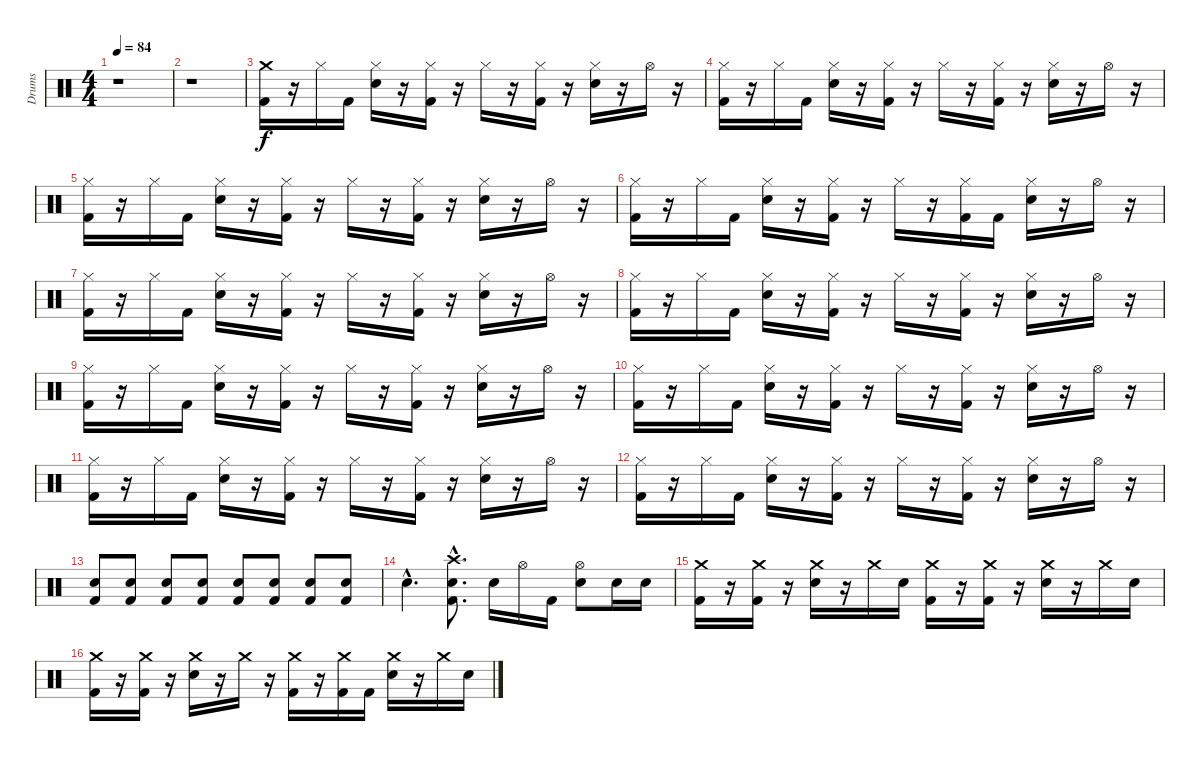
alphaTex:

\track ("Drums" "Drums") {instrument percussion}
\staff {score}
\articulation defaults
\ts (4 4)
\tempo 84
\clef neutral
\ks c
r.1{dy f} |
r.1 |
("Crash medium (hit)" "Kick (hit) 2").16 r.16 "Hi-Hat (closed)".16 "Kick (hit) 2".16 ("Hi-Hat (closed)" "Snare (hit) 2").16 r.16 ("Hi-Hat (closed)" "Kick (hit) 2").16 r.16 "Hi-Hat (closed)".16 r.16 ("Hi-Hat (closed)" "Kick (hit) 2").16 r.16 ("Hi-Hat (closed)" "Snare (hit) 2").16 r.16 "Hi-Hat (open)".16 r.16 |
("Hi-Hat (closed)" "Kick (hit) 2").16 r.16 "Hi-Hat (closed)".16 "Kick (hit) 2".16 ("Hi-Hat (closed)" "Snare (hit) 2").16 r.16 ("Hi-Hat (closed)" "Kick (hit) 2").16 r.16 "Hi-Hat (closed)".16 r.16 ("Hi-Hat (closed)" "Kick (hit) 2").16 r.16 ("Hi-Hat (closed)" "Snare (hit) 2").16 r.16 "Hi-Hat (open)".16 r.16 |
("Hi-Hat (closed)" "Kick (hit) 2").16 r.16 "Hi-Hat (closed)".16 "Kick (hit) 2".16 ("Hi-Hat (closed)" "Snare (hit) 2").16 r.16 ("Hi-Hat (closed)" "Kick (hit) 2").16 r.16 "Hi-Hat (closed)".16 r.16 ("Hi-Hat (closed)" "Kick (hit) 2").16 r.16 ("Hi-Hat (closed)" "Snare (hit) 2").16 r.16 "Hi-Hat (open)".16 r.16 |
("Hi-Hat (closed)" "Kick (hit) 2").16 r.16 "Hi-Hat (closed)".16 "Kick (hit) 2".16 ("Hi-Hat (closed)" "Snare (hit) 2").16 r.16 ("Hi-Hat (closed)" "Kick (hit) 2").16 r.16 "Hi-Hat (closed)".16 r.16 ("Hi-Hat (closed)" "Kick (hit) 2").16 "Kick (hit) 2".16 ("Hi-Hat (closed)" "Snare (hit) 2").16 r.16 "Hi-Hat (open)".16 r.16 |
("Hi-Hat (closed)" "Kick (hit) 2").16 r.16 "Hi-Hat (closed)".16 "Kick (hit) 2".16 ("Hi-Hat (closed)" "Snare (hit) 2").16 r.16 ("Hi-Hat (closed)" "Kick (hit) 2").16 r.16 "Hi-Hat (closed)".16 r.16 ("Hi-Hat (closed)" "Kick (hit) 2").16 r.16 ("Hi-Hat (closed)" "Snare (hit) 2").16 r.16 "Hi-Hat (open)".16 r.16 |
("Hi-Hat (closed)" "Kick (hit) 2").16 r.16 "Hi-Hat (closed)".16 "Kick (hit) 2".16 ("Hi-Hat (closed)" "Snare (hit) 2").16 r.16 ("Hi-Hat (closed)" "Kick (hit) 2").16 r.16 "Hi-Hat (closed)".16 r.16 ("Hi-Hat (closed)" "Kick (hit) 2").16 r.16 ("Hi-Hat (closed)" "Snare (hit) 2").16 r.16 "Hi-Hat (open)".16 r.16 |
("Hi-Hat (closed)" "Kick (hit) 2").16 r.16 "Hi-Hat (closed)".16 "Kick (hit) 2".16 ("Hi-Hat (closed)" "Snare (hit) 2").16 r.16 ("Hi-Hat (closed)" "Kick (hit) 2").16 r.16 "Hi-Hat (closed)".16 r.16 ("Hi-Hat (closed)" "Kick (hit) 2").16 r.16 ("Hi-Hat (closed)" "Snare (hit) 2").16 r.16 "Hi-Hat (open)".16 r.16 |
("Hi-Hat (closed)" "Kick (hit) 2").16 r.16 "Hi-Hat (closed)".16 "Kick (hit) 2".16 ("Hi-Hat (closed)" "Snare (hit) 2").16 r.16 ("Hi-Hat (closed)" "Kick (hit) 2").16 r.16 "Hi-Hat (closed)".16 r.16 ("Hi-Hat (closed)" "Kick (hit) 2").16 r.16 ("Hi-Hat (closed)" "Snare (hit) 2").16 r.16 "Hi-Hat (open)".16 r.16 |
("Hi-Hat (closed)" "Kick (hit) 2").16 r.16 "Hi-Hat (closed)".16 "Kick (hit) 2".16 ("Hi-Hat (closed)" "Snare (hit) 2").16 r.16 ("Hi-Hat (closed)" "Kick (hit) 2").16 r.16 "Hi-Hat (closed)".16 r.16 ("Hi-Hat (closed)" "Kick (hit) 2").16 r.16 ("Hi-Hat (closed)" "Snare (hit) 2").16 r.16 "Hi-Hat (open)".16 r.16 |
("Hi-Hat (closed)" "Kick (hit) 2").16 r.16 "Hi-Hat (closed)".16 "Kick (hit) 2".16 ("Hi-Hat (closed)" "Snare (hit) 2").16 r.16 ("Hi-Hat (closed)" "Kick (hit) 2").16 r.16 "Hi-Hat (closed)".16 r.16 ("Hi-Hat (closed)" "Kick (hit) 2").16 r.16 ("Hi-Hat (closed)" "Snare (hit) 2").16 r.16 "Hi-Hat (open)".16 r.16 |
("Snare (hit) 2" "Kick (hit) 2").8 ("Snare (hit) 2" "Kick (hit) 2").8 ("Snare (hit) 2" "Kick (hit) 2").8 ("Snare (hit) 2" "Kick (hit) 2").8 ("Snare (hit) 2" "Kick (hit) 2").8 ("Snare (hit) 2" "Kick (hit) 2").8 ("Snare (hit) 2" "Kick (hit) 2").8 ("Snare (hit) 2" "Kick (hit) 2").8 |
"Snare (hit) 2"{hac}.4{d} ("Crash high (hit)"{hac} "Snare (hit) 2"{hac} "Kick (hit) 2"{hac}).8{d} "Snare (hit) 2".16 "Hi-Hat (open)".16 "Kick (hit) 2".16 ("Hi-Hat (open)" "Snare (hit) 2").8 "Snare (hit) 2".16 "Snare (hit) 2".16 |
("Crash medium (hit)" "Kick (hit) 2").16 r.16 ("Crash medium (hit)" "Kick (hit) 2").16 r.16 ("Crash medium (hit)" "Snare (hit) 2").16 r.16 "Crash medium (hit)".16 "Snare (hit) 2".16 ("Crash medium (hit)" "Kick (hit) 2").16 r.16 ("Crash medium (hit)" "Kick (hit) 2").16 r.16 ("Crash medium (hit)" "Snare (hit) 2").16 r.16 "Crash medium (hit)".16 "Snare (hit) 2".16 |
("Crash medium (hit)" "Kick (hit) 2").16 r.16 ("Crash medium (hit)" "Kick (hit) 2").16 r.16 ("Crash medium (hit)" "Snare (hit) 2").16 r.16 "Crash medium (hit)".16 r.16 ("Crash medium (hit)" "Kick (hit) 2").16 r.16 ("Crash medium (hit)" "Kick (hit) 2").16 "Kick (hit) 2".16 ("Crash medium (hit)" "Snare (hit) 2").16 r.16 "Crash medium (hit)".16 "Snare (hit) 2".16
